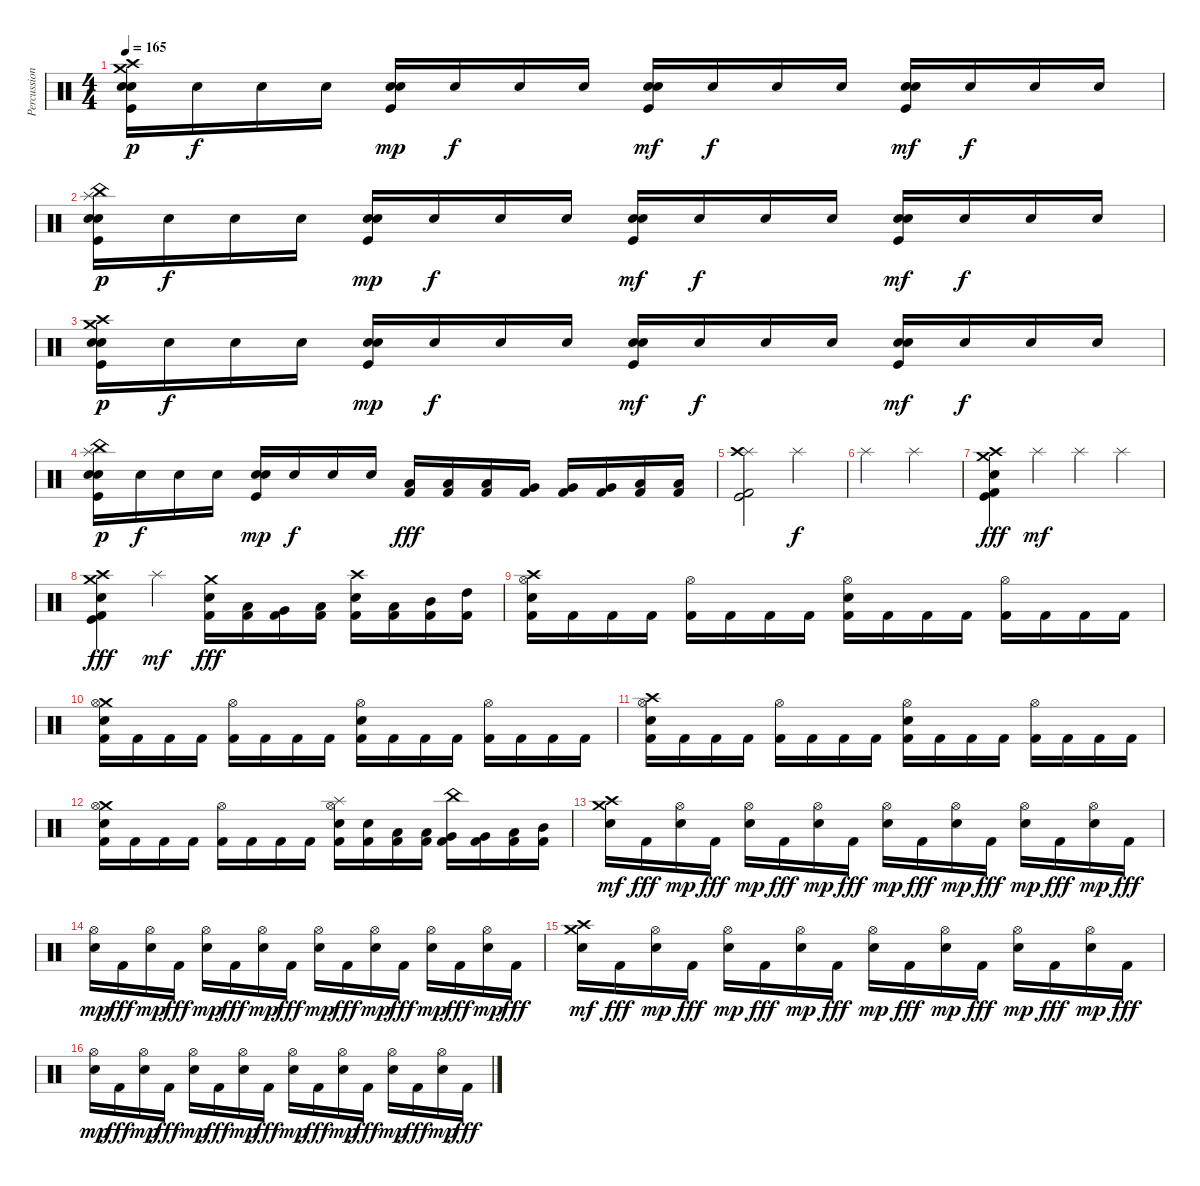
\track ("Percussions" "Percussion") {instrument percussion}
\staff {score}
\articulation defaults
\ts (4 4)
\tempo 165
\clef neutral
\ks c
("Crash medium (hit)" "Crash high (hit)" "Electric Snare (hit)" "Snare (hit) 2" "Kick (hit)").16{dy p} "Electric Snare (hit)".16{dy f} "Electric Snare (hit)".16 "Electric Snare (hit)".16 ("Electric Snare (hit)" "Snare (hit) 2" "Kick (hit)").16{dy mp} "Electric Snare (hit)".16{dy f} "Electric Snare (hit)".16 "Electric Snare (hit)".16 ("Electric Snare (hit)" "Snare (hit) 2" "Kick (hit)").16{dy mf} "Electric Snare (hit)".16{dy f} "Electric Snare (hit)".16 "Electric Snare (hit)".16 ("Electric Snare (hit)" "Snare (hit) 2" "Kick (hit)").16{dy mf} "Electric Snare (hit)".16{dy f} "Electric Snare (hit)".16 "Electric Snare (hit)".16 |
("China (hit)" "Splash (hit)" "Electric Snare (hit)" "Snare (hit) 2" "Kick (hit)").16{dy p} "Electric Snare (hit)".16{dy f} "Electric Snare (hit)".16 "Electric Snare (hit)".16 ("Electric Snare (hit)" "Snare (hit) 2" "Kick (hit)").16{dy mp} "Electric Snare (hit)".16{dy f} "Electric Snare (hit)".16 "Electric Snare (hit)".16 ("Electric Snare (hit)" "Snare (hit) 2" "Kick (hit)").16{dy mf} "Electric Snare (hit)".16{dy f} "Electric Snare (hit)".16 "Electric Snare (hit)".16 ("Electric Snare (hit)" "Snare (hit) 2" "Kick (hit)").16{dy mf} "Electric Snare (hit)".16{dy f} "Electric Snare (hit)".16 "Electric Snare (hit)".16 |
("Crash medium (hit)" "Crash high (hit)" "Electric Snare (hit)" "Snare (hit) 2" "Kick (hit)").16{dy p} "Electric Snare (hit)".16{dy f} "Electric Snare (hit)".16 "Electric Snare (hit)".16 ("Electric Snare (hit)" "Snare (hit) 2" "Kick (hit)").16{dy mp} "Electric Snare (hit)".16{dy f} "Electric Snare (hit)".16 "Electric Snare (hit)".16 ("Electric Snare (hit)" "Snare (hit) 2" "Kick (hit)").16{dy mf} "Electric Snare (hit)".16{dy f} "Electric Snare (hit)".16 "Electric Snare (hit)".16 ("Electric Snare (hit)" "Snare (hit) 2" "Kick (hit)").16{dy mf} "Electric Snare (hit)".16{dy f} "Electric Snare (hit)".16 "Electric Snare (hit)".16 |
("China (hit)" "Splash (hit)" "Electric Snare (hit)" "Snare (hit) 2" "Kick (hit)").16{dy p} "Electric Snare (hit)".16{dy f} "Electric Snare (hit)".16 "Electric Snare (hit)".16 ("Electric Snare (hit)" "Snare (hit) 2" "Kick (hit)").16{dy mp} "Electric Snare (hit)".16{dy f} "Electric Snare (hit)".16 "Electric Snare (hit)".16 ("Low Floor Tom (hit)" "Kick (hit) 2").16{dy fff} ("Low Floor Tom (hit)" "Kick (hit) 2").16 ("Low Floor Tom (hit)" "Kick (hit) 2").16 ("Very Low Tom (hit)" "Kick (hit) 2").16 ("Very Low Tom (hit)" "Kick (hit) 2").16 ("Very Low Tom (hit)" "Kick (hit) 2").16 ("Low Tom (hit)" "Kick (hit) 2").16 ("Low Tom (hit)" "Kick (hit) 2").16 |
("Splash (hit)" "Crash high (hit)" "Kick (hit) 2" "Kick (hit)").2 "Splash (hit)".2{dy f} |
"Splash (hit)".2 "Splash (hit)".2 |
("Crash medium (hit)" "Crash high (hit)" "Electric Snare (hit)" "Kick (hit)" "Kick (hit) 2").4{dy fff} "Splash (hit)".4{dy mf} "Splash (hit)".4 "Splash (hit)".4 |
("Crash medium (hit)" "Crash high (hit)" "Electric Snare (hit)" "Kick (hit)" "Kick (hit) 2").4{dy fff} "Splash (hit)".4{dy mf} ("Crash medium (hit)" "Electric Snare (hit)" "Kick (hit) 2").16{dy fff} ("Low Floor Tom (hit)" "Kick (hit) 2").16 ("Very Low Tom (hit)" "Kick (hit) 2").16 ("Low Tom (hit)" "Kick (hit) 2").16 ("Crash high (hit)" "Electric Snare (hit)" "Kick (hit) 2").16 ("Low Tom (hit)" "Kick (hit) 2").16 ("Mid Tom (hit)" "Kick (hit) 2").16 ("High Tom (hit)" "Kick (hit) 2").16 |
("Crash high (hit)" "Hi-Hat (open)" "Electric Snare (hit)" "Kick (hit) 2").16 "Kick (hit) 2".16 "Kick (hit) 2".16 "Kick (hit) 2".16 ("Hi-Hat (open)" "Kick (hit) 2").16 "Kick (hit) 2".16 "Kick (hit) 2".16 "Kick (hit) 2".16 ("Hi-Hat (open)" "Electric Snare (hit)" "Kick (hit) 2").16 "Kick (hit) 2".16 "Kick (hit) 2".16 "Kick (hit) 2".16 ("Hi-Hat (open)" "Kick (hit) 2").16 "Kick (hit) 2".16 "Kick (hit) 2".16 "Kick (hit) 2".16 |
("Crash medium (hit)" "Hi-Hat (open)" "Electric Snare (hit)" "Kick (hit) 2").16 "Kick (hit) 2".16 "Kick (hit) 2".16 "Kick (hit) 2".16 ("Hi-Hat (open)" "Kick (hit) 2").16 "Kick (hit) 2".16 "Kick (hit) 2".16 "Kick (hit) 2".16 ("Hi-Hat (open)" "Electric Snare (hit)" "Kick (hit) 2").16 "Kick (hit) 2".16 "Kick (hit) 2".16 "Kick (hit) 2".16 ("Hi-Hat (open)" "Kick (hit) 2").16 "Kick (hit) 2".16 "Kick (hit) 2".16 "Kick (hit) 2".16 |
("Crash high (hit)" "Hi-Hat (open)" "Electric Snare (hit)" "Kick (hit) 2").16 "Kick (hit) 2".16 "Kick (hit) 2".16 "Kick (hit) 2".16 ("Hi-Hat (open)" "Kick (hit) 2").16 "Kick (hit) 2".16 "Kick (hit) 2".16 "Kick (hit) 2".16 ("Hi-Hat (open)" "Electric Snare (hit)" "Kick (hit) 2").16 "Kick (hit) 2".16 "Kick (hit) 2".16 "Kick (hit) 2".16 ("Hi-Hat (open)" "Kick (hit) 2").16 "Kick (hit) 2".16 "Kick (hit) 2".16 "Kick (hit) 2".16 |
("Crash medium (hit)" "Hi-Hat (open)" "Electric Snare (hit)" "Kick (hit) 2").16 "Kick (hit) 2".16 "Kick (hit) 2".16 "Kick (hit) 2".16 ("Hi-Hat (open)" "Kick (hit) 2").16 "Kick (hit) 2".16 "Kick (hit) 2".16 "Kick (hit) 2".16 ("Splash (hit)" "Hi-Hat (open)" "Electric Snare (hit)" "Kick (hit) 2").16 ("Electric Snare (hit)" "Kick (hit) 2").16 ("Low Floor Tom (hit)" "Kick (hit) 2").16 ("Low Floor Tom (hit)" "Kick (hit) 2").16 ("China (hit)" "Very Low Tom (hit)" "Kick (hit) 2").16 ("Very Low Tom (hit)" "Kick (hit) 2").16 ("Low Tom (hit)" "Kick (hit) 2").16 ("Mid Tom (hit)" "Kick (hit) 2").16 |
("Crash medium (hit)" "Crash high (hit)" "Electric Snare (hit)").16{dy mf} "Kick (hit) 2".16{dy fff} ("Hi-Hat (open)" "Electric Snare (hit)").16{dy mp} "Kick (hit) 2".16{dy fff} ("Hi-Hat (open)" "Electric Snare (hit)").16{dy mp} "Kick (hit) 2".16{dy fff} ("Hi-Hat (open)" "Electric Snare (hit)").16{dy mp} "Kick (hit) 2".16{dy fff} ("Hi-Hat (open)" "Electric Snare (hit)").16{dy mp} "Kick (hit) 2".16{dy fff} ("Hi-Hat (open)" "Electric Snare (hit)").16{dy mp} "Kick (hit) 2".16{dy fff} ("Hi-Hat (open)" "Electric Snare (hit)").16{dy mp} "Kick (hit) 2".16{dy fff} ("Hi-Hat (open)" "Electric Snare (hit)").16{dy mp} "Kick (hit) 2".16{dy fff} |
("Hi-Hat (open)" "Electric Snare (hit)").16{dy mp} "Kick (hit) 2".16{dy fff} ("Hi-Hat (open)" "Electric Snare (hit)").16{dy mp} "Kick (hit) 2".16{dy fff} ("Hi-Hat (open)" "Electric Snare (hit)").16{dy mp} "Kick (hit) 2".16{dy fff} ("Hi-Hat (open)" "Electric Snare (hit)").16{dy mp} "Kick (hit) 2".16{dy fff} ("Hi-Hat (open)" "Electric Snare (hit)").16{dy mp} "Kick (hit) 2".16{dy fff} ("Hi-Hat (open)" "Electric Snare (hit)").16{dy mp} "Kick (hit) 2".16{dy fff} ("Hi-Hat (open)" "Electric Snare (hit)").16{dy mp} "Kick (hit) 2".16{dy fff} ("Hi-Hat (open)" "Electric Snare (hit)").16{dy mp} "Kick (hit) 2".16{dy fff} |
("Crash medium (hit)" "Crash high (hit)" "Electric Snare (hit)").16{dy mf} "Kick (hit) 2".16{dy fff} ("Hi-Hat (open)" "Electric Snare (hit)").16{dy mp} "Kick (hit) 2".16{dy fff} ("Hi-Hat (open)" "Electric Snare (hit)").16{dy mp} "Kick (hit) 2".16{dy fff} ("Hi-Hat (open)" "Electric Snare (hit)").16{dy mp} "Kick (hit) 2".16{dy fff} ("Hi-Hat (open)" "Electric Snare (hit)").16{dy mp} "Kick (hit) 2".16{dy fff} ("Hi-Hat (open)" "Electric Snare (hit)").16{dy mp} "Kick (hit) 2".16{dy fff} ("Hi-Hat (open)" "Electric Snare (hit)").16{dy mp} "Kick (hit) 2".16{dy fff} ("Hi-Hat (open)" "Electric Snare (hit)").16{dy mp} "Kick (hit) 2".16{dy fff} |
("Hi-Hat (open)" "Electric Snare (hit)").16{dy mp} "Kick (hit) 2".16{dy fff} ("Hi-Hat (open)" "Electric Snare (hit)").16{dy mp} "Kick (hit) 2".16{dy fff} ("Hi-Hat (open)" "Electric Snare (hit)").16{dy mp} "Kick (hit) 2".16{dy fff} ("Hi-Hat (open)" "Electric Snare (hit)").16{dy mp} "Kick (hit) 2".16{dy fff} ("Hi-Hat (open)" "Electric Snare (hit)").16{dy mp} "Kick (hit) 2".16{dy fff} ("Hi-Hat (open)" "Electric Snare (hit)").16{dy mp} "Kick (hit) 2".16{dy fff} ("Hi-Hat (open)" "Electric Snare (hit)").16{dy mp} "Kick (hit) 2".16{dy fff} ("Hi-Hat (open)" "Electric Snare (hit)").16{dy mp} "Kick (hit) 2".16{dy fff}
